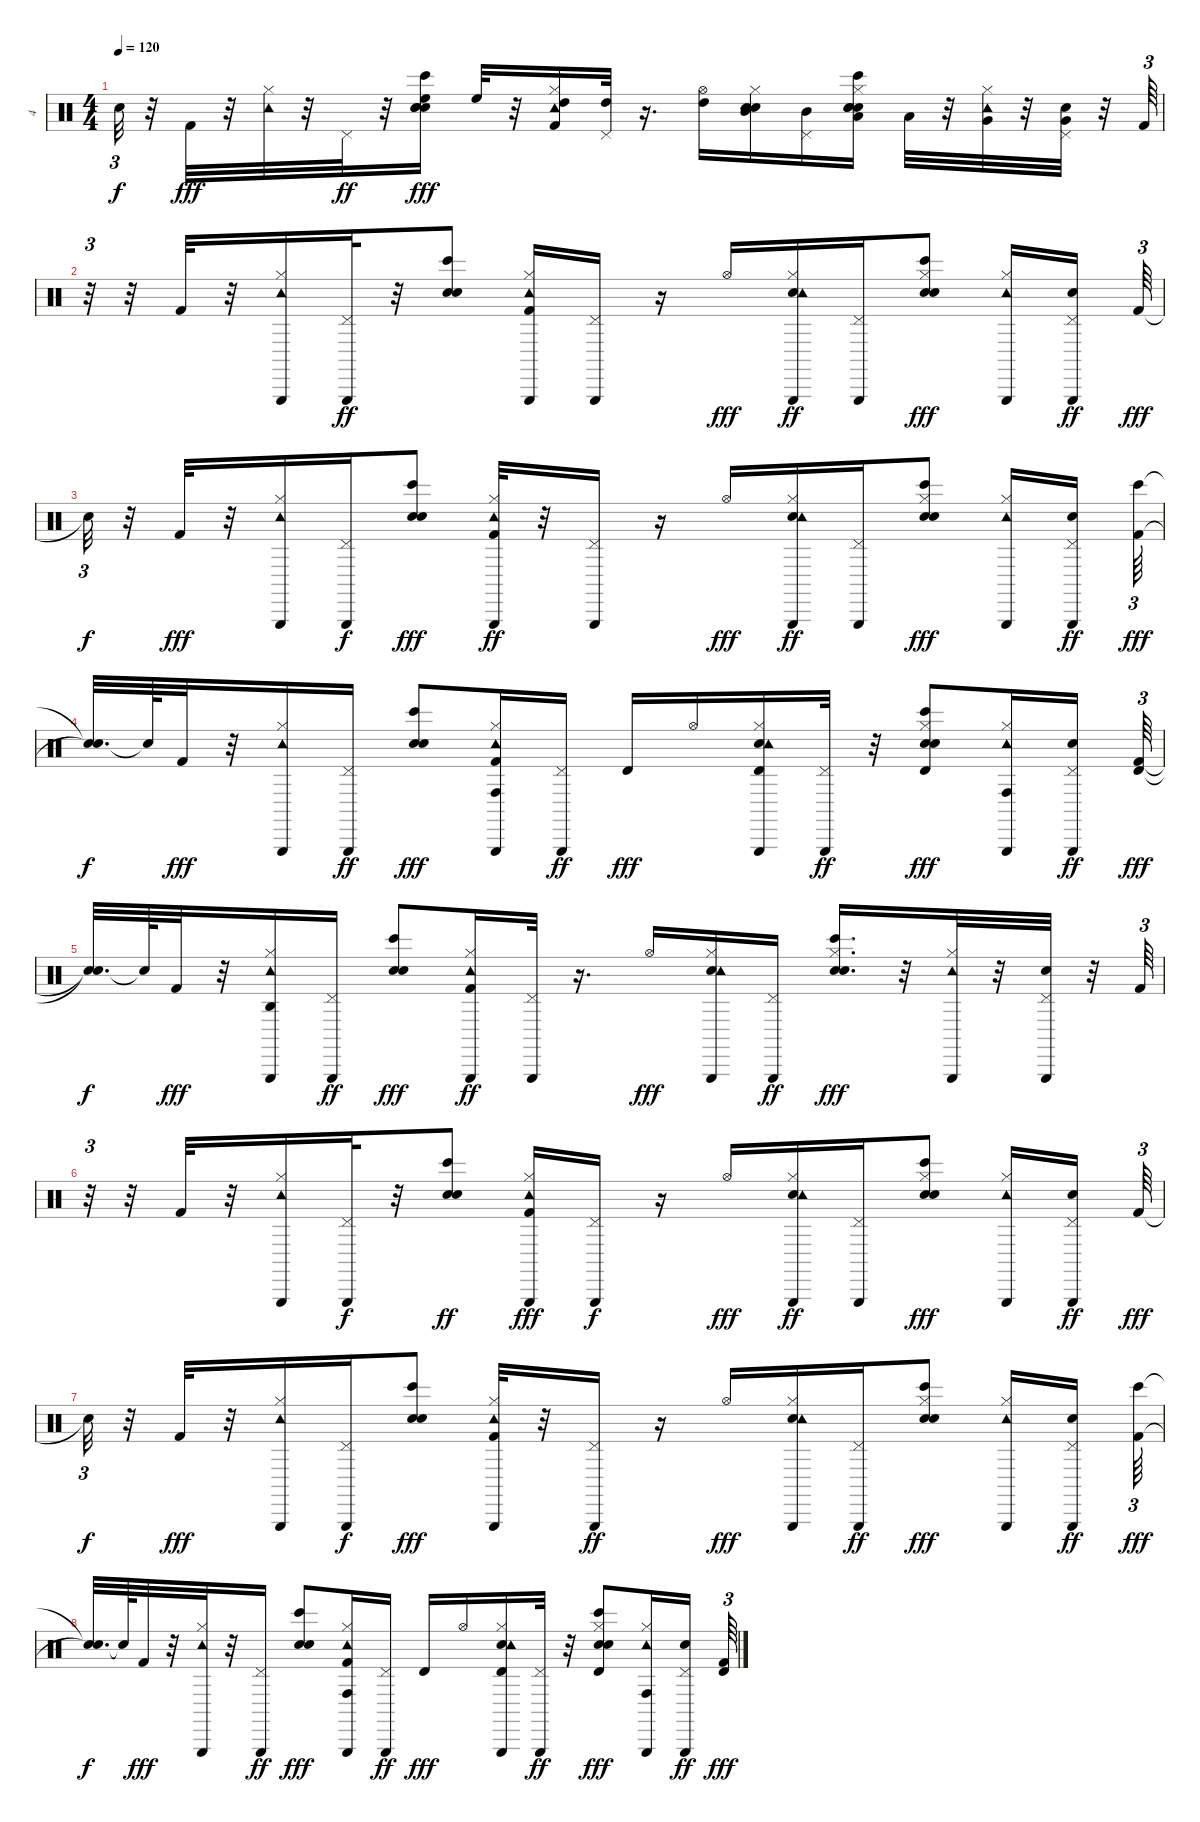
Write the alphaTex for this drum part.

\track ("4" "4") {instrument percussion}
\staff {score}
\articulation defaults
\ts (4 4)
\tempo 120
\clef neutral
\ks c "Snare (hit)"{t}.32{tu (3 2) dy f}
r.32 "Kick (hit) 2".32{dy fff} r.32 ("Hi-Hat (closed)" "Tambourine (hit)").32 r.32 "Pedal Hi-Hat (hit)".32{dy ff} r.32 ("Snare (hit) 2" "Electric Snare (hit)" "Bongo High (hit)" "Hand Clap (hit)" "High Floor Tom (hit)").16{dy fff} "High Floor Tom (hit)".32 r.32 ("Hi-Hat (closed)" "High Tom (hit)" "Kick (hit) 2" "Tambourine (hit)").16 ("Pedal Hi-Hat (hit)" "High Tom (hit)").32 r.16{d} ("Hi-Hat (open)" "High Tom (hit)").16 ("Snare (hit) 2" "Hi-Hat (closed)" "Mid Tom (hit)" "Electric Snare (hit)" "Tambourine (hit)").16 ("Pedal Hi-Hat (hit)" "Mid Tom (hit)").16 ("Snare (hit) 2" "Electric Snare (hit)" "Hand Clap (hit)" "Hi-Hat (closed)" "Bongo High (hit)" "Low Tom (hit)").16 "Low Tom (hit)".32 r.32 ("Hi-Hat (closed)" "Very Low Tom (hit)" "Tambourine (hit)").32 r.32 ("Pedal Hi-Hat (hit)" "Snare (hit) 2" "Very Low Tom (hit)").32 r.32 "Kick (hit) 2".64{tu (3 2)} |
r.32{tu (3 2)} r.32 "Kick (hit) 2".32 r.32 ("Hi-Hat (closed)" "Triangle (hit)" "Tambourine (hit)").16 ("Pedal Hi-Hat (hit)" "Triangle (hit)").32{dy ff} r.32 ("Snare (hit) 2" "Bongo High (hit)" "Hand Clap (hit)").8 ("Hi-Hat (closed)" "Tambourine (hit)" "Kick (hit) 2" "Triangle (hit)").16 ("Pedal Hi-Hat (hit)" "Triangle (hit)").16 r.16 "Hi-Hat (open)".16{dy fff} ("Hi-Hat (closed)" "Snare (hit) 2" "Tambourine (hit)" "Triangle (hit)").16{dy ff} ("Pedal Hi-Hat (hit)" "Triangle (hit)").16 ("Snare (hit) 2" "Hi-Hat (closed)" "Hand Clap (hit)" "Bongo High (hit)").8{dy fff} ("Hi-Hat (closed)" "Tambourine (hit)" "Triangle (hit)").16 ("Pedal Hi-Hat (hit)" "Snare (hit) 2" "Triangle (hit)").16{dy ff beam splitsecondary} "Kick (hit) 2".64{tu (3 2) dy fff} |
"Snare (hit)"{t}.32{tu (3 2) dy f} r.32 "Kick (hit) 2".32{dy fff} r.32 ("Hi-Hat (closed)" "Tambourine (hit)" "Triangle (hit)").16 ("Pedal Hi-Hat (hit)" "Triangle (hit)").16{dy f} ("Snare (hit) 2" "Bongo High (hit)" "Hand Clap (hit)").8{dy fff} ("Hi-Hat (closed)" "Kick (hit) 2" "Tambourine (hit)" "Triangle (hit)").32{dy ff} r.32 ("Pedal Hi-Hat (hit)" "Triangle (hit)").16 r.16 "Hi-Hat (open)".16{dy fff} ("Snare (hit) 2" "Hi-Hat (closed)" "Tambourine (hit)" "Triangle (hit)").16{dy ff} ("Pedal Hi-Hat (hit)" "Triangle (hit)").16 ("Snare (hit) 2" "Hand Clap (hit)" "Hi-Hat (closed)" "Bongo High (hit)").8{dy fff} ("Hi-Hat (closed)" "Triangle (hit)" "Tambourine (hit)").16 ("Pedal Hi-Hat (hit)" "Snare (hit) 2" "Triangle (hit)").16{dy ff beam splitsecondary} ("Kick (hit) 2" "Bongo High (hit)").64{tu (3 2) dy fff} |
("Snare (hit)"{t} "Snare (hit)"{t}).32{d dy f} "Snare (hit)"{t}.64 "Kick (hit) 2".32{dy fff} r.32 ("Hi-Hat (closed)" "Triangle (hit)" "Tambourine (hit)").16 ("Pedal Hi-Hat (hit)" "Triangle (hit)").16{dy ff} ("Snare (hit) 2" "Bongo High (hit)" "Hand Clap (hit)").8{dy fff} ("Hi-Hat (closed)" "Kick (hit) 2" "Tambourine (hit)" "Triangle (hit)" "Conga high (hit)").16 ("Pedal Hi-Hat (hit)" "Triangle (hit)").16{dy ff} "Timbale high (hit)".16{dy fff} "Hi-Hat (open)".16 ("Snare (hit) 2" "Hi-Hat (closed)" "Tambourine (hit)" "Triangle (hit)" "Timbale high (hit)").16 ("Pedal Hi-Hat (hit)" "Triangle (hit)").32{dy ff} r.32 ("Snare (hit) 2" "Hi-Hat (closed)" "Hand Clap (hit)" "Bongo High (hit)" "Timbale high (hit)").8{dy fff} ("Hi-Hat (closed)" "Tambourine (hit)" "Triangle (hit)" "Conga high (hit)").16 ("Pedal Hi-Hat (hit)" "Snare (hit) 2" "Triangle (hit)").16{dy ff} ("Kick (hit) 2" "Timbale high (hit)").64{tu (3 2) dy fff} |
("Snare (hit)"{t} "Snare (hit)"{t}).32{d dy f} "Snare (hit)"{t}.64 "Kick (hit) 2".32{dy fff} r.32 ("Hi-Hat (closed)" "Tambourine (hit)" "Triangle (hit)" "Agogo high (hit)").16 ("Pedal Hi-Hat (hit)" "Triangle (hit)").16{dy ff} ("Snare (hit) 2" "Bongo High (hit)" "Hand Clap (hit)").8{dy fff} ("Hi-Hat (closed)" "Kick (hit) 2" "Tambourine (hit)" "Triangle (hit)").16{dy ff} ("Pedal Hi-Hat (hit)" "Triangle (hit)").32 r.16{d} "Hi-Hat (open)".16{dy fff} ("Snare (hit) 2" "Hi-Hat (closed)" "Triangle (hit)" "Tambourine (hit)").16 ("Pedal Hi-Hat (hit)" "Triangle (hit)").16{dy ff} ("Snare (hit) 2" "Hand Clap (hit)" "Hi-Hat (closed)" "Bongo High (hit)").16{d dy fff} r.32 ("Hi-Hat (closed)" "Tambourine (hit)" "Triangle (hit)").32 r.32 ("Pedal Hi-Hat (hit)" "Snare (hit) 2" "Triangle (hit)").32 r.32 "Kick (hit) 2".64{tu (3 2)} |
r.32{tu (3 2)} r.32 "Kick (hit) 2".32 r.32 ("Hi-Hat (closed)" "Triangle (hit)" "Tambourine (hit)").16 ("Pedal Hi-Hat (hit)" "Triangle (hit)").32{dy f} r.32 ("Snare (hit) 2" "Bongo High (hit)" "Hand Clap (hit)").8{dy ff} ("Hi-Hat (closed)" "Triangle (hit)" "Kick (hit) 2" "Tambourine (hit)").16{dy fff} ("Pedal Hi-Hat (hit)" "Triangle (hit)").16{dy f} r.16 "Hi-Hat (open)".16{dy fff} ("Hi-Hat (closed)" "Snare (hit) 2" "Tambourine (hit)" "Triangle (hit)").16{dy ff} ("Pedal Hi-Hat (hit)" "Triangle (hit)").16 ("Snare (hit) 2" "Hi-Hat (closed)" "Hand Clap (hit)" "Bongo High (hit)").8{dy fff} ("Hi-Hat (closed)" "Triangle (hit)" "Tambourine (hit)").16 ("Pedal Hi-Hat (hit)" "Snare (hit) 2" "Triangle (hit)").16{dy ff beam splitsecondary} "Kick (hit) 2".64{tu (3 2) dy fff} |
"Snare (hit)"{t}.32{tu (3 2) dy f} r.32 "Kick (hit) 2".32{dy fff} r.32 ("Hi-Hat (closed)" "Triangle (hit)" "Tambourine (hit)").16 ("Pedal Hi-Hat (hit)" "Triangle (hit)").16{dy f} ("Snare (hit) 2" "Bongo High (hit)" "Hand Clap (hit)").8{dy fff} ("Hi-Hat (closed)" "Triangle (hit)" "Tambourine (hit)" "Kick (hit) 2").32 r.32 ("Pedal Hi-Hat (hit)" "Triangle (hit)").16{dy ff} r.16 "Hi-Hat (open)".16{dy fff} ("Snare (hit) 2" "Hi-Hat (closed)" "Triangle (hit)" "Tambourine (hit)").16 ("Pedal Hi-Hat (hit)" "Triangle (hit)").16{dy ff} ("Snare (hit) 2" "Hand Clap (hit)" "Hi-Hat (closed)" "Bongo High (hit)").8{dy fff} ("Hi-Hat (closed)" "Triangle (hit)" "Tambourine (hit)").16 ("Pedal Hi-Hat (hit)" "Snare (hit) 2" "Triangle (hit)").16{dy ff beam splitsecondary} ("Kick (hit) 2" "Bongo High (hit)").64{tu (3 2) dy fff} |
("Snare (hit)"{t} "Snare (hit)"{t}).32{d dy f} "Snare (hit)"{t}.64 "Kick (hit) 2".32{dy fff} r.32 ("Hi-Hat (closed)" "Triangle (hit)" "Tambourine (hit)").32 r.32 ("Pedal Hi-Hat (hit)" "Triangle (hit)").16{dy ff} ("Snare (hit) 2" "Bongo High (hit)" "Hand Clap (hit)").8{dy fff} ("Hi-Hat (closed)" "Triangle (hit)" "Tambourine (hit)" "Kick (hit) 2" "Conga high (hit)").16 ("Pedal Hi-Hat (hit)" "Triangle (hit)").16{dy ff} "Timbale high (hit)".16{dy fff} "Hi-Hat (open)".16 ("Snare (hit) 2" "Hi-Hat (closed)" "Triangle (hit)" "Tambourine (hit)" "Timbale high (hit)").16 ("Pedal Hi-Hat (hit)" "Triangle (hit)").32{dy ff} r.32 ("Snare (hit) 2" "Hi-Hat (closed)" "Hand Clap (hit)" "Bongo High (hit)" "Timbale high (hit)").8{dy fff} ("Hi-Hat (closed)" "Tambourine (hit)" "Triangle (hit)" "Conga high (hit)").16 ("Pedal Hi-Hat (hit)" "Snare (hit) 2" "Triangle (hit)").16{dy ff} ("Kick (hit) 2" "Timbale high (hit)").64{tu (3 2) dy fff}
